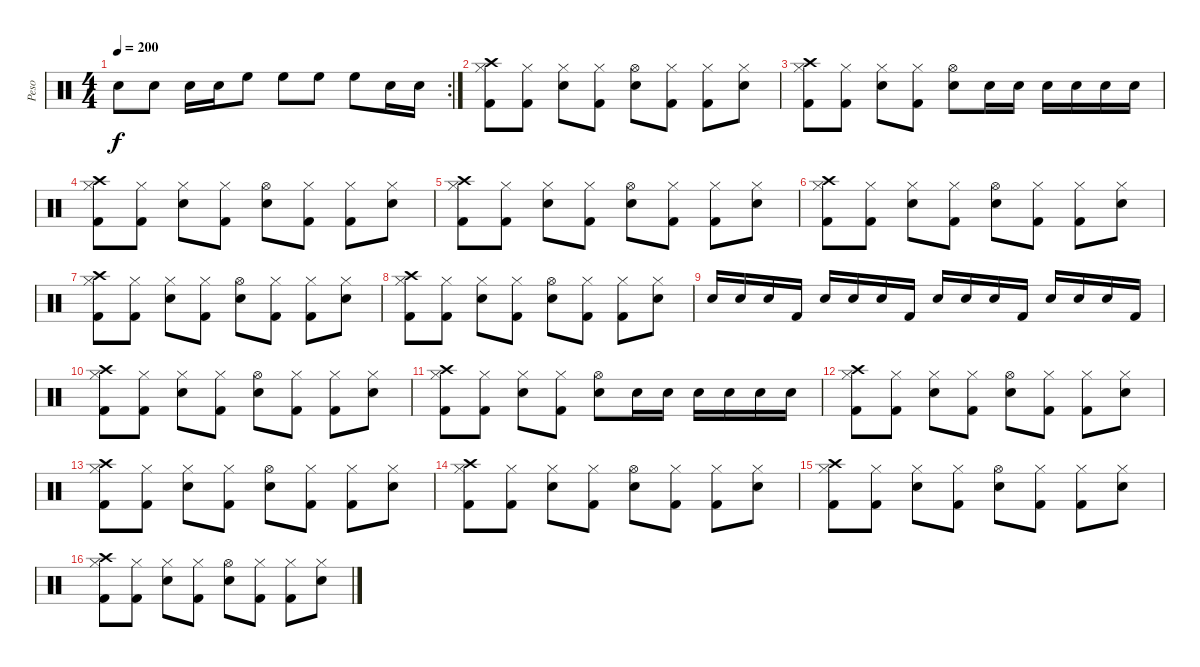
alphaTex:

\track ("Peso" "Peso") {instrument percussion}
\staff {score}
\articulation defaults
\rc 2
\ts (4 4)
\tempo 200
\clef neutral
\ks c "Snare (hit) 2".8{dy f} "Snare (hit) 2".8 "Snare (hit) 2".16 "Snare (hit) 2".16 "High Floor Tom (hit)".8 "High Floor Tom (hit)".8 "High Floor Tom (hit)".8 "High Floor Tom (hit)".8 "Snare (hit) 2".16 "Snare (hit) 2".16
|
("Crash high (hit)" "Hi-Hat (closed)" "Kick (hit) 2").8 ("Hi-Hat (closed)" "Kick (hit) 2").8 ("Hi-Hat (closed)" "Snare (hit) 2").8 ("Hi-Hat (closed)" "Kick (hit) 2").8 ("Hi-Hat (open)" "Snare (hit) 2").8 ("Hi-Hat (closed)" "Kick (hit) 2").8 ("Hi-Hat (closed)" "Kick (hit) 2").8 ("Hi-Hat (closed)" "Snare (hit) 2").8 |
("Crash high (hit)" "Hi-Hat (closed)" "Kick (hit) 2").8 ("Hi-Hat (closed)" "Kick (hit) 2").8 ("Hi-Hat (closed)" "Snare (hit) 2").8 ("Hi-Hat (closed)" "Kick (hit) 2").8 ("Hi-Hat (open)" "Snare (hit) 2").8 "Snare (hit) 2".16 "Snare (hit) 2".16 "Snare (hit) 2".16 "Snare (hit) 2".16 "Snare (hit) 2".16 "Snare (hit) 2".16 |
("Crash high (hit)" "Hi-Hat (closed)" "Kick (hit) 2").8 ("Hi-Hat (closed)" "Kick (hit) 2").8 ("Hi-Hat (closed)" "Snare (hit) 2").8 ("Hi-Hat (closed)" "Kick (hit) 2").8 ("Hi-Hat (open)" "Snare (hit) 2").8 ("Hi-Hat (closed)" "Kick (hit) 2").8 ("Hi-Hat (closed)" "Kick (hit) 2").8 ("Hi-Hat (closed)" "Snare (hit) 2").8 |
("Crash high (hit)" "Hi-Hat (closed)" "Kick (hit) 2").8 ("Hi-Hat (closed)" "Kick (hit) 2").8 ("Hi-Hat (closed)" "Snare (hit) 2").8 ("Hi-Hat (closed)" "Kick (hit) 2").8 ("Hi-Hat (open)" "Snare (hit) 2").8 ("Hi-Hat (closed)" "Kick (hit) 2").8 ("Hi-Hat (closed)" "Kick (hit) 2").8 ("Hi-Hat (closed)" "Snare (hit) 2").8 |
("Crash high (hit)" "Hi-Hat (closed)" "Kick (hit) 2").8 ("Hi-Hat (closed)" "Kick (hit) 2").8 ("Hi-Hat (closed)" "Snare (hit) 2").8 ("Hi-Hat (closed)" "Kick (hit) 2").8 ("Hi-Hat (open)" "Snare (hit) 2").8 ("Hi-Hat (closed)" "Kick (hit) 2").8 ("Hi-Hat (closed)" "Kick (hit) 2").8 ("Hi-Hat (closed)" "Snare (hit) 2").8 |
("Crash high (hit)" "Hi-Hat (closed)" "Kick (hit) 2").8 ("Hi-Hat (closed)" "Kick (hit) 2").8 ("Hi-Hat (closed)" "Snare (hit) 2").8 ("Hi-Hat (closed)" "Kick (hit) 2").8 ("Hi-Hat (open)" "Snare (hit) 2").8 ("Hi-Hat (closed)" "Kick (hit) 2").8 ("Hi-Hat (closed)" "Kick (hit) 2").8 ("Hi-Hat (closed)" "Snare (hit) 2").8 |
("Crash high (hit)" "Hi-Hat (closed)" "Kick (hit) 2").8 ("Hi-Hat (closed)" "Kick (hit) 2").8 ("Hi-Hat (closed)" "Snare (hit) 2").8 ("Hi-Hat (closed)" "Kick (hit) 2").8 ("Hi-Hat (open)" "Snare (hit) 2").8 ("Hi-Hat (closed)" "Kick (hit) 2").8 ("Hi-Hat (closed)" "Kick (hit) 2").8 ("Hi-Hat (closed)" "Snare (hit) 2").8 |
"Snare (hit) 2".16 "Snare (hit) 2".16 "Snare (hit) 2".16 "Kick (hit) 2".16 "Snare (hit) 2".16 "Snare (hit) 2".16 "Snare (hit) 2".16 "Kick (hit) 2".16 "Snare (hit) 2".16 "Snare (hit) 2".16 "Snare (hit) 2".16 "Kick (hit) 2".16 "Snare (hit) 2".16 "Snare (hit) 2".16 "Snare (hit) 2".16 "Kick (hit) 2".16 |
("Crash high (hit)" "Hi-Hat (closed)" "Kick (hit) 2").8 ("Hi-Hat (closed)" "Kick (hit) 2").8 ("Hi-Hat (closed)" "Snare (hit) 2").8 ("Hi-Hat (closed)" "Kick (hit) 2").8 ("Hi-Hat (open)" "Snare (hit) 2").8 ("Hi-Hat (closed)" "Kick (hit) 2").8 ("Hi-Hat (closed)" "Kick (hit) 2").8 ("Hi-Hat (closed)" "Snare (hit) 2").8 |
("Crash high (hit)" "Hi-Hat (closed)" "Kick (hit) 2").8 ("Hi-Hat (closed)" "Kick (hit) 2").8 ("Hi-Hat (closed)" "Snare (hit) 2").8 ("Hi-Hat (closed)" "Kick (hit) 2").8 ("Hi-Hat (open)" "Snare (hit) 2").8 "Snare (hit) 2".16 "Snare (hit) 2".16 "Snare (hit) 2".16 "Snare (hit) 2".16 "Snare (hit) 2".16 "Snare (hit) 2".16 |
("Crash high (hit)" "Hi-Hat (closed)" "Kick (hit) 2").8 ("Hi-Hat (closed)" "Kick (hit) 2").8 ("Hi-Hat (closed)" "Snare (hit) 2").8 ("Hi-Hat (closed)" "Kick (hit) 2").8 ("Hi-Hat (open)" "Snare (hit) 2").8 ("Hi-Hat (closed)" "Kick (hit) 2").8 ("Hi-Hat (closed)" "Kick (hit) 2").8 ("Hi-Hat (closed)" "Snare (hit) 2").8 |
("Crash high (hit)" "Hi-Hat (closed)" "Kick (hit) 2").8 ("Hi-Hat (closed)" "Kick (hit) 2").8 ("Hi-Hat (closed)" "Snare (hit) 2").8 ("Hi-Hat (closed)" "Kick (hit) 2").8 ("Hi-Hat (open)" "Snare (hit) 2").8 ("Hi-Hat (closed)" "Kick (hit) 2").8 ("Hi-Hat (closed)" "Kick (hit) 2").8 ("Hi-Hat (closed)" "Snare (hit) 2").8 |
("Crash high (hit)" "Hi-Hat (closed)" "Kick (hit) 2").8 ("Hi-Hat (closed)" "Kick (hit) 2").8 ("Hi-Hat (closed)" "Snare (hit) 2").8 ("Hi-Hat (closed)" "Kick (hit) 2").8 ("Hi-Hat (open)" "Snare (hit) 2").8 ("Hi-Hat (closed)" "Kick (hit) 2").8 ("Hi-Hat (closed)" "Kick (hit) 2").8 ("Hi-Hat (closed)" "Snare (hit) 2").8 |
("Crash high (hit)" "Hi-Hat (closed)" "Kick (hit) 2").8 ("Hi-Hat (closed)" "Kick (hit) 2").8 ("Hi-Hat (closed)" "Snare (hit) 2").8 ("Hi-Hat (closed)" "Kick (hit) 2").8 ("Hi-Hat (open)" "Snare (hit) 2").8 ("Hi-Hat (closed)" "Kick (hit) 2").8 ("Hi-Hat (closed)" "Kick (hit) 2").8 ("Hi-Hat (closed)" "Snare (hit) 2").8 |
("Crash high (hit)" "Hi-Hat (closed)" "Kick (hit) 2").8 ("Hi-Hat (closed)" "Kick (hit) 2").8 ("Hi-Hat (closed)" "Snare (hit) 2").8 ("Hi-Hat (closed)" "Kick (hit) 2").8 ("Hi-Hat (open)" "Snare (hit) 2").8 ("Hi-Hat (closed)" "Kick (hit) 2").8 ("Hi-Hat (closed)" "Kick (hit) 2").8 ("Hi-Hat (closed)" "Snare (hit) 2").8
